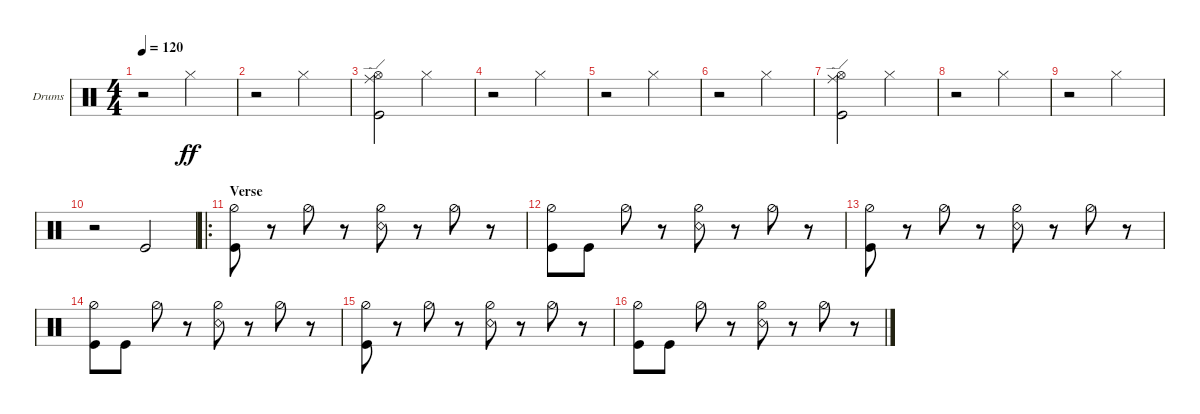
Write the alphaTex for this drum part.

\bracketExtendMode groupsimilarinstruments
\firstSystemTrackNameOrientation horizontal
\otherSystemsTrackNameOrientation horizontal
\track ("Drumkit" "Drums") {instrument percussion}
\staff {score}
\articulation defaults
\ts (4 4)
\tempo 120
\clef neutral
\ks c
r.2{dy ff} "Hi-Hat (closed)".2 |
r.2 "Hi-Hat (closed)".2 |
("Kick (hit)" "Hi-Hat (open)" "Ride (edge)").2 "Hi-Hat (closed)".2 |
r.2 "Hi-Hat (closed)".2 |
r.2 "Hi-Hat (closed)".2 |
r.2 "Hi-Hat (closed)".2 |
("Kick (hit)" "Hi-Hat (open)" "Ride (edge)").2 "Hi-Hat (closed)".2 |
r.2 "Hi-Hat (closed)".2 |
r.2 "Hi-Hat (closed)".2 |
r.2 "Kick (hit)".2 |
\ro
\section ("" "Verse")
("Hi-Hat (half)" "Kick (hit)").8 r.8 "Hi-Hat (half)".8 r.8 ("Hi-Hat (half)" "Snare (rim shot)").8 r.8 "Hi-Hat (half)".8 r.8 |
("Hi-Hat (half)" "Kick (hit)").8 "Kick (hit)".8 "Hi-Hat (half)".8 r.8 ("Hi-Hat (half)" "Snare (rim shot)").8 r.8 "Hi-Hat (half)".8 r.8 |
("Hi-Hat (half)" "Kick (hit)").8 r.8 "Hi-Hat (half)".8 r.8 ("Hi-Hat (half)" "Snare (rim shot)").8 r.8 "Hi-Hat (half)".8 r.8 |
("Hi-Hat (half)" "Kick (hit)").8 "Kick (hit)".8 "Hi-Hat (half)".8 r.8 ("Hi-Hat (half)" "Snare (rim shot)").8 r.8 "Hi-Hat (half)".8 r.8 |
("Hi-Hat (half)" "Kick (hit)").8 r.8 "Hi-Hat (half)".8 r.8 ("Hi-Hat (half)" "Snare (rim shot)").8 r.8 "Hi-Hat (half)".8 r.8 |
("Hi-Hat (half)" "Kick (hit)").8 "Kick (hit)".8 "Hi-Hat (half)".8 r.8 ("Hi-Hat (half)" "Snare (rim shot)").8 r.8 "Hi-Hat (half)".8 r.8
